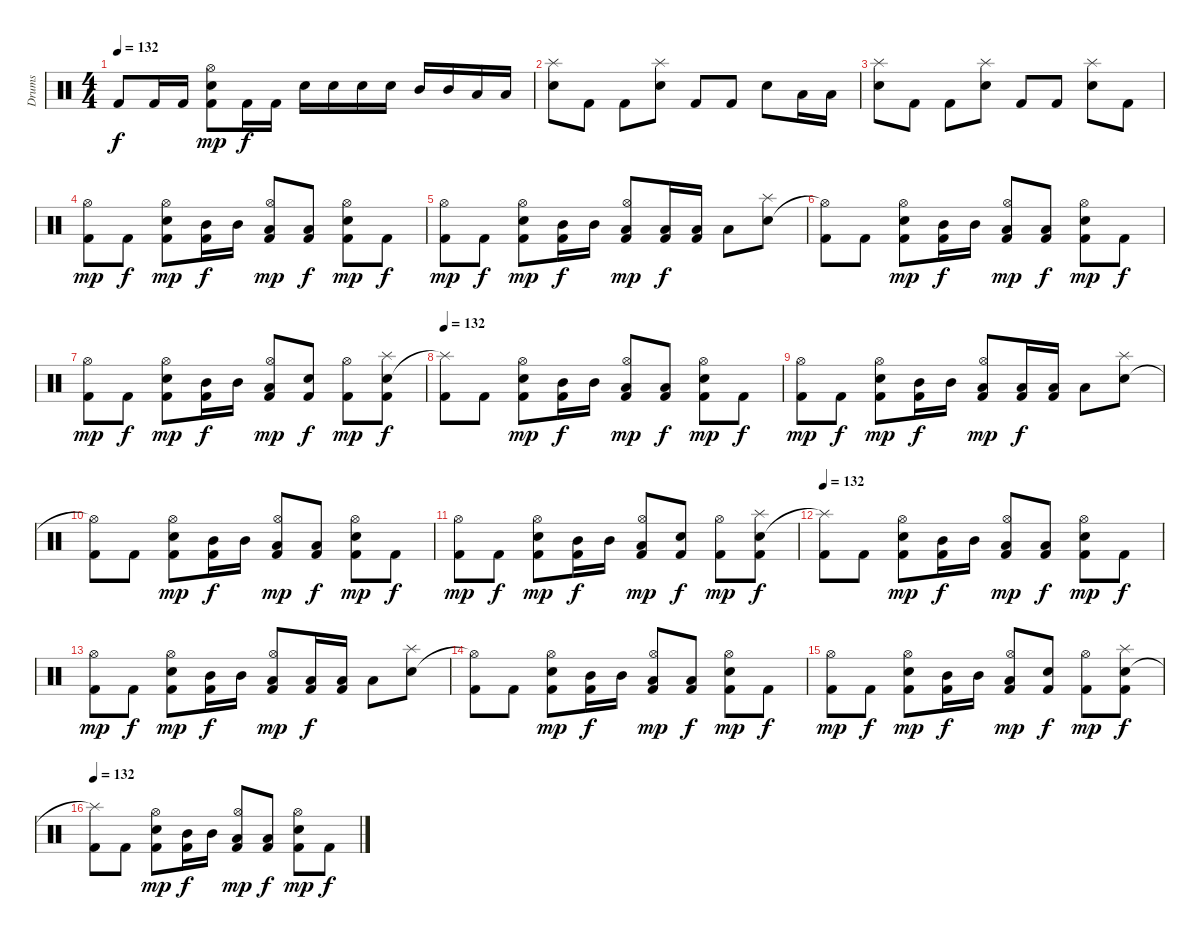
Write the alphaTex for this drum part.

\track ("Drums" "Drums") {instrument percussion}
\staff {score}
\articulation defaults
\ts (4 4)
\tempo 132
\clef neutral
\ks c "Kick (hit) 2"{t}.8{dy f} "Kick (hit) 2".16 "Kick (hit) 2".16
("Snare (hit) 2" "Hi-Hat (open)" "Kick (hit) 2").8{dy mp} "Kick (hit) 2".16{dy f} "Kick (hit) 2".16 "Snare (hit) 2".16 "Snare (hit) 2".16 "Snare (hit) 2".16 "Snare (hit) 2".16 "Mid Tom (hit)".16 "Mid Tom (hit)".16 "Low Tom (hit)".16 "Low Tom (hit)".16 |
("Snare (hit) 2" "Splash (hit)").8 "Kick (hit) 2".8 "Kick (hit) 2".8 ("Snare (hit) 2" "Splash (hit)").8 "Kick (hit) 2".8 "Kick (hit) 2".8 "Snare (hit) 2".8 "Low Tom (hit)".16 "Low Tom (hit)".16 |
("Snare (hit) 2" "Splash (hit)").8 "Kick (hit) 2".8 "Kick (hit) 2".8 ("Snare (hit) 2" "Splash (hit)").8 "Kick (hit) 2".8 "Kick (hit) 2".8 ("Snare (hit) 2" "Splash (hit)").8 "Kick (hit) 2".8 |
("Hi-Hat (open)" "Kick (hit) 2").8{dy mp} "Kick (hit) 2".8{dy f} ("Snare (hit) 2" "Hi-Hat (open)" "Kick (hit) 2").8{dy mp} ("Mid Tom (hit)" "Kick (hit) 2").16{dy f} "Mid Tom (hit)".16 ("Hi-Hat (open)" "Low Tom (hit)" "Kick (hit) 2").8{dy mp} ("Low Tom (hit)" "Kick (hit) 2").8{dy f} ("Snare (hit) 2" "Hi-Hat (open)" "Kick (hit) 2").8{dy mp} "Kick (hit) 2".8{dy f} |
("Hi-Hat (open)" "Kick (hit) 2").8{dy mp} "Kick (hit) 2".8{dy f} ("Snare (hit) 2" "Hi-Hat (open)" "Kick (hit) 2").8{dy mp} ("Mid Tom (hit)" "Kick (hit) 2").16{dy f} "Mid Tom (hit)".16 ("Hi-Hat (open)" "Low Tom (hit)" "Kick (hit) 2").8{dy mp} ("Low Tom (hit)" "Kick (hit) 2").16{dy f} ("Low Tom (hit)" "Kick (hit) 2").16 "Low Tom (hit)".8 ("Snare (hit) 2" "Splash (hit)").8 |
("Hi-Hat (open)"{t} "Kick (hit) 2").8 "Kick (hit) 2".8 ("Snare (hit) 2" "Hi-Hat (open)" "Kick (hit) 2").8{dy mp} ("Mid Tom (hit)" "Kick (hit) 2").16{dy f} "Mid Tom (hit)".16 ("Hi-Hat (open)" "Low Tom (hit)" "Kick (hit) 2").8{dy mp} ("Low Tom (hit)" "Kick (hit) 2").8{dy f} ("Snare (hit) 2" "Hi-Hat (open)" "Kick (hit) 2").8{dy mp} "Kick (hit) 2".8{dy f} |
("Hi-Hat (open)" "Kick (hit) 2").8{dy mp} "Kick (hit) 2".8{dy f} ("Snare (hit) 2" "Hi-Hat (open)" "Kick (hit) 2").8{dy mp} ("Mid Tom (hit)" "Kick (hit) 2").16{dy f} "Mid Tom (hit)".16 ("Hi-Hat (open)" "Low Tom (hit)" "Kick (hit) 2").8{dy mp} ("Snare (hit) 2" "Kick (hit) 2").8{dy f} ("Hi-Hat (open)" "Kick (hit) 2").8{dy mp} ("Snare (hit) 2" "Splash (hit)" "Kick (hit) 2").8{dy f} |
\tempo 132
("Splash (hit)"{t} "Kick (hit) 2").8 "Kick (hit) 2".8 ("Snare (hit) 2" "Hi-Hat (open)" "Kick (hit) 2").8{dy mp} ("Mid Tom (hit)" "Kick (hit) 2").16{dy f} "Mid Tom (hit)".16 ("Hi-Hat (open)" "Low Tom (hit)" "Kick (hit) 2").8{dy mp} ("Low Tom (hit)" "Kick (hit) 2").8{dy f} ("Snare (hit) 2" "Hi-Hat (open)" "Kick (hit) 2").8{dy mp} "Kick (hit) 2".8{dy f} |
("Hi-Hat (open)" "Kick (hit) 2").8{dy mp} "Kick (hit) 2".8{dy f} ("Snare (hit) 2" "Hi-Hat (open)" "Kick (hit) 2").8{dy mp} ("Mid Tom (hit)" "Kick (hit) 2").16{dy f} "Mid Tom (hit)".16 ("Hi-Hat (open)" "Low Tom (hit)" "Kick (hit) 2").8{dy mp} ("Low Tom (hit)" "Kick (hit) 2").16{dy f} ("Low Tom (hit)" "Kick (hit) 2").16 "Low Tom (hit)".8 ("Snare (hit) 2" "Splash (hit)").8 |
("Hi-Hat (open)"{t} "Kick (hit) 2").8 "Kick (hit) 2".8 ("Snare (hit) 2" "Hi-Hat (open)" "Kick (hit) 2").8{dy mp} ("Mid Tom (hit)" "Kick (hit) 2").16{dy f} "Mid Tom (hit)".16 ("Hi-Hat (open)" "Low Tom (hit)" "Kick (hit) 2").8{dy mp} ("Low Tom (hit)" "Kick (hit) 2").8{dy f} ("Snare (hit) 2" "Hi-Hat (open)" "Kick (hit) 2").8{dy mp} "Kick (hit) 2".8{dy f} |
("Hi-Hat (open)" "Kick (hit) 2").8{dy mp} "Kick (hit) 2".8{dy f} ("Snare (hit) 2" "Hi-Hat (open)" "Kick (hit) 2").8{dy mp} ("Mid Tom (hit)" "Kick (hit) 2").16{dy f} "Mid Tom (hit)".16 ("Hi-Hat (open)" "Low Tom (hit)" "Kick (hit) 2").8{dy mp} ("Snare (hit) 2" "Kick (hit) 2").8{dy f} ("Hi-Hat (open)" "Kick (hit) 2").8{dy mp} ("Snare (hit) 2" "Splash (hit)" "Kick (hit) 2").8{dy f} |
\tempo 132
("Splash (hit)"{t} "Kick (hit) 2").8 "Kick (hit) 2".8 ("Snare (hit) 2" "Hi-Hat (open)" "Kick (hit) 2").8{dy mp} ("Mid Tom (hit)" "Kick (hit) 2").16{dy f} "Mid Tom (hit)".16 ("Hi-Hat (open)" "Low Tom (hit)" "Kick (hit) 2").8{dy mp} ("Low Tom (hit)" "Kick (hit) 2").8{dy f} ("Snare (hit) 2" "Hi-Hat (open)" "Kick (hit) 2").8{dy mp} "Kick (hit) 2".8{dy f} |
("Hi-Hat (open)" "Kick (hit) 2").8{dy mp} "Kick (hit) 2".8{dy f} ("Snare (hit) 2" "Hi-Hat (open)" "Kick (hit) 2").8{dy mp} ("Mid Tom (hit)" "Kick (hit) 2").16{dy f} "Mid Tom (hit)".16 ("Hi-Hat (open)" "Low Tom (hit)" "Kick (hit) 2").8{dy mp} ("Low Tom (hit)" "Kick (hit) 2").16{dy f} ("Low Tom (hit)" "Kick (hit) 2").16 "Low Tom (hit)".8 ("Snare (hit) 2" "Splash (hit)").8 |
("Hi-Hat (open)"{t} "Kick (hit) 2").8 "Kick (hit) 2".8 ("Snare (hit) 2" "Hi-Hat (open)" "Kick (hit) 2").8{dy mp} ("Mid Tom (hit)" "Kick (hit) 2").16{dy f} "Mid Tom (hit)".16 ("Hi-Hat (open)" "Low Tom (hit)" "Kick (hit) 2").8{dy mp} ("Low Tom (hit)" "Kick (hit) 2").8{dy f} ("Snare (hit) 2" "Hi-Hat (open)" "Kick (hit) 2").8{dy mp} "Kick (hit) 2".8{dy f} |
("Hi-Hat (open)" "Kick (hit) 2").8{dy mp} "Kick (hit) 2".8{dy f} ("Snare (hit) 2" "Hi-Hat (open)" "Kick (hit) 2").8{dy mp} ("Mid Tom (hit)" "Kick (hit) 2").16{dy f} "Mid Tom (hit)".16 ("Hi-Hat (open)" "Low Tom (hit)" "Kick (hit) 2").8{dy mp} ("Snare (hit) 2" "Kick (hit) 2").8{dy f} ("Hi-Hat (open)" "Kick (hit) 2").8{dy mp} ("Snare (hit) 2" "Splash (hit)" "Kick (hit) 2").8{dy f} |
\tempo 132
("Splash (hit)"{t} "Kick (hit) 2").8 "Kick (hit) 2".8 ("Snare (hit) 2" "Hi-Hat (open)" "Kick (hit) 2").8{dy mp} ("Mid Tom (hit)" "Kick (hit) 2").16{dy f} "Mid Tom (hit)".16 ("Hi-Hat (open)" "Low Tom (hit)" "Kick (hit) 2").8{dy mp} ("Low Tom (hit)" "Kick (hit) 2").8{dy f} ("Snare (hit) 2" "Hi-Hat (open)" "Kick (hit) 2").8{dy mp} "Kick (hit) 2".8{dy f}
